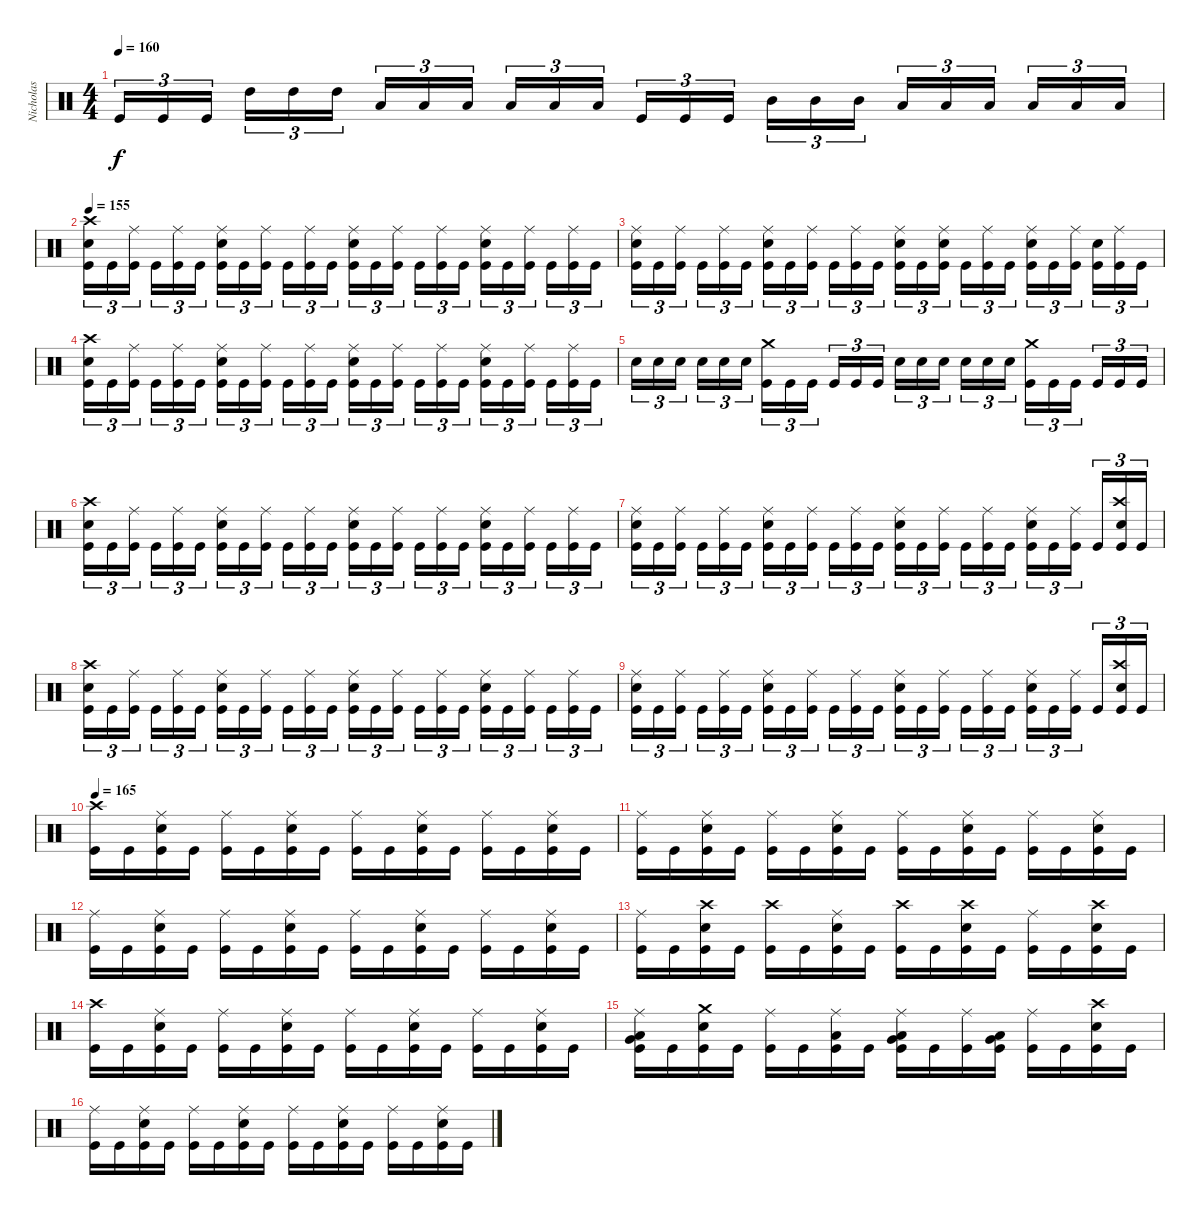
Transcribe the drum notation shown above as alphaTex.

\track ("Nicholas" "Nicholas") {instrument percussion}
\staff {score}
\articulation defaults
\ts (4 4)
\tempo 160
\clef neutral
\ks c "Kick (hit)".16{tu (3 2) dy f} "Kick (hit)".16{tu (3 2)} "Kick (hit)".16{tu (3 2)} "High Tom (hit)".16{tu (3 2)} "High Tom (hit)".16{tu (3 2)} "High Tom (hit)".16{tu (3 2)} "Low Tom (hit)".16{tu (3 2)} "Low Tom (hit)".16{tu (3 2)} "Low Tom (hit)".16{tu (3 2)} "Low Tom (hit)".16{tu (3 2)} "Low Tom (hit)".16{tu (3 2)} "Low Tom (hit)".16{tu (3 2)} "Kick (hit)".16{tu (3 2)} "Kick (hit)".16{tu (3 2)} "Kick (hit)".16{tu (3 2)} "Mid Tom (hit)".16{tu (3 2)} "Mid Tom (hit)".16{tu (3 2)} "Mid Tom (hit)".16{tu (3 2)} "Low Tom (hit)".16{tu (3 2)} "Low Tom (hit)".16{tu (3 2)} "Low Tom (hit)".16{tu (3 2)} "Low Tom (hit)".16{tu (3 2)} "Low Tom (hit)".16{tu (3 2)} "Low Tom (hit)".16{tu (3 2)}
|
\tempo 155
("Crash high (hit)" "Electric Snare (hit)" "Kick (hit)").16{tu (3 2)} "Kick (hit)".16{tu (3 2)} ("Ride (middle)" "Kick (hit)").16{tu (3 2)} "Kick (hit)".16{tu (3 2)} ("Ride (middle)" "Kick (hit)").16{tu (3 2)} "Kick (hit)".16{tu (3 2)} ("Ride (middle)" "Electric Snare (hit)" "Kick (hit)").16{tu (3 2)} "Kick (hit)".16{tu (3 2)} ("Ride (middle)" "Kick (hit)").16{tu (3 2)} "Kick (hit)".16{tu (3 2)} ("Ride (middle)" "Kick (hit)").16{tu (3 2)} "Kick (hit)".16{tu (3 2)} ("Ride (middle)" "Electric Snare (hit)" "Kick (hit)").16{tu (3 2)} "Kick (hit)".16{tu (3 2)} ("Ride (middle)" "Kick (hit)").16{tu (3 2)} "Kick (hit)".16{tu (3 2)} ("Ride (middle)" "Kick (hit)").16{tu (3 2)} "Kick (hit)".16{tu (3 2)} ("Ride (middle)" "Electric Snare (hit)" "Kick (hit)").16{tu (3 2)} "Kick (hit)".16{tu (3 2)} ("Ride (middle)" "Kick (hit)").16{tu (3 2)} "Kick (hit)".16{tu (3 2)} ("Ride (middle)" "Kick (hit)").16{tu (3 2)} "Kick (hit)".16{tu (3 2)} |
("Ride (middle)" "Electric Snare (hit)" "Kick (hit)").16{tu (3 2)} "Kick (hit)".16{tu (3 2)} ("Ride (middle)" "Kick (hit)").16{tu (3 2)} "Kick (hit)".16{tu (3 2)} ("Ride (middle)" "Kick (hit)").16{tu (3 2)} "Kick (hit)".16{tu (3 2)} ("Ride (middle)" "Electric Snare (hit)" "Kick (hit)").16{tu (3 2)} "Kick (hit)".16{tu (3 2)} ("Ride (middle)" "Kick (hit)").16{tu (3 2)} "Kick (hit)".16{tu (3 2)} ("Ride (middle)" "Kick (hit)").16{tu (3 2)} "Kick (hit)".16{tu (3 2)} ("Ride (middle)" "Electric Snare (hit)" "Kick (hit)").16{tu (3 2)} "Kick (hit)".16{tu (3 2)} ("Ride (middle)" "Electric Snare (hit)" "Kick (hit)").16{tu (3 2)} "Kick (hit)".16{tu (3 2)} ("Ride (middle)" "Kick (hit)").16{tu (3 2)} "Kick (hit)".16{tu (3 2)} ("Ride (middle)" "Electric Snare (hit)" "Kick (hit)").16{tu (3 2)} "Kick (hit)".16{tu (3 2)} ("Ride (middle)" "Kick (hit)").16{tu (3 2)} ("Electric Snare (hit)" "Kick (hit)").16{tu (3 2)} ("Ride (middle)" "Kick (hit)").16{tu (3 2)} "Kick (hit)".16{tu (3 2)} |
("Crash high (hit)" "Electric Snare (hit)" "Kick (hit)").16{tu (3 2)} "Kick (hit)".16{tu (3 2)} ("Ride (middle)" "Kick (hit)").16{tu (3 2)} "Kick (hit)".16{tu (3 2)} ("Ride (middle)" "Kick (hit)").16{tu (3 2)} "Kick (hit)".16{tu (3 2)} ("Ride (middle)" "Electric Snare (hit)" "Kick (hit)").16{tu (3 2)} "Kick (hit)".16{tu (3 2)} ("Ride (middle)" "Kick (hit)").16{tu (3 2)} "Kick (hit)".16{tu (3 2)} ("Ride (middle)" "Kick (hit)").16{tu (3 2)} "Kick (hit)".16{tu (3 2)} ("Ride (middle)" "Electric Snare (hit)" "Kick (hit)").16{tu (3 2)} "Kick (hit)".16{tu (3 2)} ("Ride (middle)" "Kick (hit)").16{tu (3 2)} "Kick (hit)".16{tu (3 2)} ("Ride (middle)" "Kick (hit)").16{tu (3 2)} "Kick (hit)".16{tu (3 2)} ("Ride (middle)" "Electric Snare (hit)" "Kick (hit)").16{tu (3 2)} "Kick (hit)".16{tu (3 2)} ("Ride (middle)" "Kick (hit)").16{tu (3 2)} "Kick (hit)".16{tu (3 2)} ("Ride (middle)" "Kick (hit)").16{tu (3 2)} "Kick (hit)".16{tu (3 2)} |
"Electric Snare (hit)".16{tu (3 2)} "Electric Snare (hit)".16{tu (3 2)} "Electric Snare (hit)".16{tu (3 2)} "Electric Snare (hit)".16{tu (3 2)} "Electric Snare (hit)".16{tu (3 2)} "Electric Snare (hit)".16{tu (3 2)} ("Crash medium (hit)" "Kick (hit)").16{tu (3 2)} "Kick (hit)".16{tu (3 2)} "Kick (hit)".16{tu (3 2)} "Kick (hit)".16{tu (3 2)} "Kick (hit)".16{tu (3 2)} "Kick (hit)".16{tu (3 2)} "Electric Snare (hit)".16{tu (3 2)} "Electric Snare (hit)".16{tu (3 2)} "Electric Snare (hit)".16{tu (3 2)} "Electric Snare (hit)".16{tu (3 2)} "Electric Snare (hit)".16{tu (3 2)} "Electric Snare (hit)".16{tu (3 2)} ("Crash medium (hit)" "Kick (hit)").16{tu (3 2)} "Kick (hit)".16{tu (3 2)} "Kick (hit)".16{tu (3 2)} "Kick (hit)".16{tu (3 2)} "Kick (hit)".16{tu (3 2)} "Kick (hit)".16{tu (3 2)} |
("Crash high (hit)" "Electric Snare (hit)" "Kick (hit)").16{tu (3 2)} "Kick (hit)".16{tu (3 2)} ("Ride (middle)" "Kick (hit)").16{tu (3 2)} "Kick (hit)".16{tu (3 2)} ("Ride (middle)" "Kick (hit)").16{tu (3 2)} "Kick (hit)".16{tu (3 2)} ("Ride (middle)" "Electric Snare (hit)" "Kick (hit)").16{tu (3 2)} "Kick (hit)".16{tu (3 2)} ("Ride (middle)" "Kick (hit)").16{tu (3 2)} "Kick (hit)".16{tu (3 2)} ("Ride (middle)" "Kick (hit)").16{tu (3 2)} "Kick (hit)".16{tu (3 2)} ("Ride (middle)" "Electric Snare (hit)" "Kick (hit)").16{tu (3 2)} "Kick (hit)".16{tu (3 2)} ("Ride (middle)" "Kick (hit)").16{tu (3 2)} "Kick (hit)".16{tu (3 2)} ("Ride (middle)" "Kick (hit)").16{tu (3 2)} "Kick (hit)".16{tu (3 2)} ("Ride (middle)" "Electric Snare (hit)" "Kick (hit)").16{tu (3 2)} "Kick (hit)".16{tu (3 2)} ("Ride (middle)" "Kick (hit)").16{tu (3 2)} "Kick (hit)".16{tu (3 2)} ("Ride (middle)" "Kick (hit)").16{tu (3 2)} "Kick (hit)".16{tu (3 2)} |
("Ride (middle)" "Electric Snare (hit)" "Kick (hit)").16{tu (3 2)} "Kick (hit)".16{tu (3 2)} ("Ride (middle)" "Kick (hit)").16{tu (3 2)} "Kick (hit)".16{tu (3 2)} ("Ride (middle)" "Kick (hit)").16{tu (3 2)} "Kick (hit)".16{tu (3 2)} ("Ride (middle)" "Electric Snare (hit)" "Kick (hit)").16{tu (3 2)} "Kick (hit)".16{tu (3 2)} ("Ride (middle)" "Kick (hit)").16{tu (3 2)} "Kick (hit)".16{tu (3 2)} ("Ride (middle)" "Kick (hit)").16{tu (3 2)} "Kick (hit)".16{tu (3 2)} ("Ride (middle)" "Electric Snare (hit)" "Kick (hit)").16{tu (3 2)} "Kick (hit)".16{tu (3 2)} ("Ride (middle)" "Kick (hit)").16{tu (3 2)} "Kick (hit)".16{tu (3 2)} ("Ride (middle)" "Kick (hit)").16{tu (3 2)} "Kick (hit)".16{tu (3 2)} ("Ride (middle)" "Electric Snare (hit)" "Kick (hit)").16{tu (3 2)} "Kick (hit)".16{tu (3 2)} ("Ride (middle)" "Kick (hit)").16{tu (3 2)} "Kick (hit)".16{tu (3 2)} ("Crash high (hit)" "Electric Snare (hit)" "Kick (hit)").16{tu (3 2)} "Kick (hit)".16{tu (3 2)} |
("Crash high (hit)" "Electric Snare (hit)" "Kick (hit)").16{tu (3 2)} "Kick (hit)".16{tu (3 2)} ("Ride (middle)" "Kick (hit)").16{tu (3 2)} "Kick (hit)".16{tu (3 2)} ("Ride (middle)" "Kick (hit)").16{tu (3 2)} "Kick (hit)".16{tu (3 2)} ("Ride (middle)" "Electric Snare (hit)" "Kick (hit)").16{tu (3 2)} "Kick (hit)".16{tu (3 2)} ("Ride (middle)" "Kick (hit)").16{tu (3 2)} "Kick (hit)".16{tu (3 2)} ("Ride (middle)" "Kick (hit)").16{tu (3 2)} "Kick (hit)".16{tu (3 2)} ("Ride (middle)" "Electric Snare (hit)" "Kick (hit)").16{tu (3 2)} "Kick (hit)".16{tu (3 2)} ("Ride (middle)" "Kick (hit)").16{tu (3 2)} "Kick (hit)".16{tu (3 2)} ("Ride (middle)" "Kick (hit)").16{tu (3 2)} "Kick (hit)".16{tu (3 2)} ("Ride (middle)" "Electric Snare (hit)" "Kick (hit)").16{tu (3 2)} "Kick (hit)".16{tu (3 2)} ("Ride (middle)" "Kick (hit)").16{tu (3 2)} "Kick (hit)".16{tu (3 2)} ("Ride (middle)" "Kick (hit)").16{tu (3 2)} "Kick (hit)".16{tu (3 2)} |
("Ride (middle)" "Electric Snare (hit)" "Kick (hit)").16{tu (3 2)} "Kick (hit)".16{tu (3 2)} ("Ride (middle)" "Kick (hit)").16{tu (3 2)} "Kick (hit)".16{tu (3 2)} ("Ride (middle)" "Kick (hit)").16{tu (3 2)} "Kick (hit)".16{tu (3 2)} ("Ride (middle)" "Electric Snare (hit)" "Kick (hit)").16{tu (3 2)} "Kick (hit)".16{tu (3 2)} ("Ride (middle)" "Kick (hit)").16{tu (3 2)} "Kick (hit)".16{tu (3 2)} ("Ride (middle)" "Kick (hit)").16{tu (3 2)} "Kick (hit)".16{tu (3 2)} ("Ride (middle)" "Electric Snare (hit)" "Kick (hit)").16{tu (3 2)} "Kick (hit)".16{tu (3 2)} ("Ride (middle)" "Kick (hit)").16{tu (3 2)} "Kick (hit)".16{tu (3 2)} ("Ride (middle)" "Kick (hit)").16{tu (3 2)} "Kick (hit)".16{tu (3 2)} ("Ride (middle)" "Electric Snare (hit)" "Kick (hit)").16{tu (3 2)} "Kick (hit)".16{tu (3 2)} ("Ride (middle)" "Kick (hit)").16{tu (3 2)} "Kick (hit)".16{tu (3 2)} ("Crash high (hit)" "Electric Snare (hit)" "Kick (hit)").16{tu (3 2)} "Kick (hit)".16{tu (3 2)} |
\tempo 165
("Crash high (hit)" "Kick (hit)").16 "Kick (hit)".16 ("Ride (middle)" "Electric Snare (hit)" "Kick (hit)").16 "Kick (hit)".16 ("Ride (middle)" "Kick (hit)").16 "Kick (hit)".16 ("Ride (middle)" "Electric Snare (hit)" "Kick (hit)").16 "Kick (hit)".16 ("Ride (middle)" "Kick (hit)").16 "Kick (hit)".16 ("Ride (middle)" "Electric Snare (hit)" "Kick (hit)").16 "Kick (hit)".16 ("Ride (middle)" "Kick (hit)").16 "Kick (hit)".16 ("Ride (middle)" "Electric Snare (hit)" "Kick (hit)").16 "Kick (hit)".16 |
("Ride (middle)" "Kick (hit)").16 "Kick (hit)".16 ("Ride (middle)" "Electric Snare (hit)" "Kick (hit)").16 "Kick (hit)".16 ("Ride (middle)" "Kick (hit)").16 "Kick (hit)".16 ("Ride (middle)" "Electric Snare (hit)" "Kick (hit)").16 "Kick (hit)".16 ("Ride (middle)" "Kick (hit)").16 "Kick (hit)".16 ("Ride (middle)" "Electric Snare (hit)" "Kick (hit)").16 "Kick (hit)".16 ("Ride (middle)" "Kick (hit)").16 "Kick (hit)".16 ("Ride (middle)" "Electric Snare (hit)" "Kick (hit)").16 "Kick (hit)".16 |
("Ride (middle)" "Kick (hit)").16 "Kick (hit)".16 ("Ride (middle)" "Electric Snare (hit)" "Kick (hit)").16 "Kick (hit)".16 ("Ride (middle)" "Kick (hit)").16 "Kick (hit)".16 ("Ride (middle)" "Electric Snare (hit)" "Kick (hit)").16 "Kick (hit)".16 ("Ride (middle)" "Kick (hit)").16 "Kick (hit)".16 ("Ride (middle)" "Electric Snare (hit)" "Kick (hit)").16 "Kick (hit)".16 ("Ride (middle)" "Kick (hit)").16 "Kick (hit)".16 ("Ride (middle)" "Electric Snare (hit)" "Kick (hit)").16 "Kick (hit)".16 |
("Ride (middle)" "Kick (hit)").16 "Kick (hit)".16 ("Crash high (hit)" "Electric Snare (hit)" "Kick (hit)").16 "Kick (hit)".16 ("Crash high (hit)" "Kick (hit)").16 "Kick (hit)".16 ("Ride (middle)" "Electric Snare (hit)" "Kick (hit)").16 "Kick (hit)".16 ("Crash high (hit)" "Kick (hit)").16 "Kick (hit)".16 ("Crash high (hit)" "Electric Snare (hit)" "Kick (hit)").16 "Kick (hit)".16 ("Ride (middle)" "Kick (hit)").16 "Kick (hit)".16 ("Crash high (hit)" "Electric Snare (hit)" "Kick (hit)").16 "Kick (hit)".16 |
("Crash high (hit)" "Kick (hit)").16 "Kick (hit)".16 ("Ride (middle)" "Electric Snare (hit)" "Kick (hit)").16 "Kick (hit)".16 ("Ride (middle)" "Kick (hit)").16 "Kick (hit)".16 ("Ride (middle)" "Electric Snare (hit)" "Kick (hit)").16 "Kick (hit)".16 ("Ride (middle)" "Kick (hit)").16 "Kick (hit)".16 ("Ride (middle)" "Electric Snare (hit)" "Kick (hit)").16 "Kick (hit)".16 ("Ride (middle)" "Kick (hit)").16 "Kick (hit)".16 ("Ride (middle)" "Electric Snare (hit)" "Kick (hit)").16 "Kick (hit)".16 |
("Ride (middle)" "Low Tom (hit)" "Very Low Tom (hit)" "Kick (hit)").16 "Kick (hit)".16 ("Crash medium (hit)" "Electric Snare (hit)" "Kick (hit)").16 "Kick (hit)".16 ("Ride (middle)" "Kick (hit)").16 "Kick (hit)".16 ("Ride (middle)" "Low Tom (hit)" "Kick (hit)").16 "Kick (hit)".16 ("Ride (middle)" "Low Tom (hit)" "Very Low Tom (hit)" "Kick (hit)").16 "Kick (hit)".16 ("Ride (middle)" "Kick (hit)").16 ("Low Tom (hit)" "Very Low Tom (hit)" "Kick (hit)").16 ("Ride (middle)" "Kick (hit)").16 "Kick (hit)".16 ("Crash high (hit)" "Electric Snare (hit)" "Kick (hit)").16 "Kick (hit)".16 |
("Ride (middle)" "Kick (hit)").16 "Kick (hit)".16 ("Ride (middle)" "Electric Snare (hit)" "Kick (hit)").16 "Kick (hit)".16 ("Ride (middle)" "Kick (hit)").16 "Kick (hit)".16 ("Ride (middle)" "Electric Snare (hit)" "Kick (hit)").16 "Kick (hit)".16 ("Ride (middle)" "Kick (hit)").16 "Kick (hit)".16 ("Ride (middle)" "Electric Snare (hit)" "Kick (hit)").16 "Kick (hit)".16 ("Ride (middle)" "Kick (hit)").16 "Kick (hit)".16 ("Ride (middle)" "Electric Snare (hit)" "Kick (hit)").16 "Kick (hit)".16
